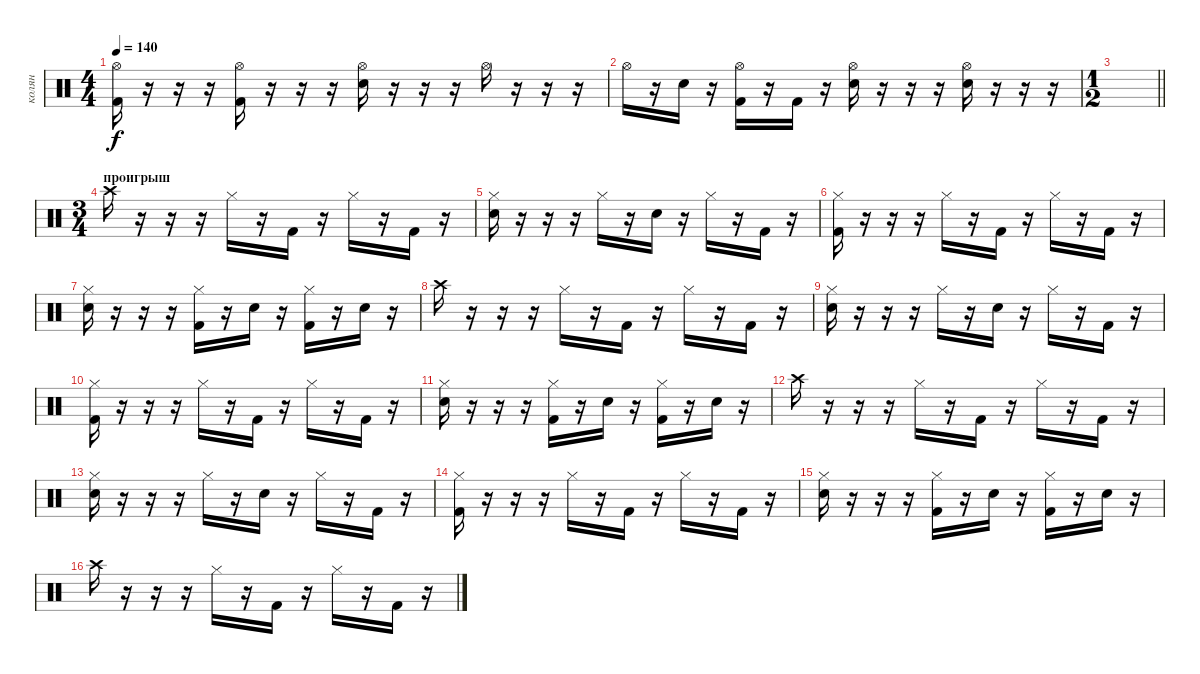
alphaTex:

\track ("колян" "колян") {instrument percussion}
\staff {score}
\articulation defaults
\ts (4 4)
\tempo 140
\clef neutral
\ks c
("Kick (hit) 2" "Hi-Hat (open)").16{dy f} r.16 r.16 r.16 ("Kick (hit) 2" "Hi-Hat (open)").16 r.16 r.16 r.16 ("Snare (hit) 2" "Hi-Hat (open)").16 r.16 r.16 r.16 "Hi-Hat (open)".16 r.16 r.16 r.16 |
"Hi-Hat (open)".16 r.16 "Snare (hit) 2".16 r.16 ("Kick (hit) 2" "Hi-Hat (open)").16 r.16 "Kick (hit) 2".16 r.16 ("Snare (hit) 2" "Hi-Hat (open)").16 r.16 r.16 r.16 ("Snare (hit) 2" "Hi-Hat (open)").16 r.16 r.16 r.16 |
\ts (1 2)
\barLineRight lightlight
|
\ts (3 4)
\section ("" "проигрыш")
"Crash high (hit)".16 r.16 r.16 r.16 "Hi-Hat (closed)".16 r.16 "Kick (hit) 2".16 r.16 "Hi-Hat (closed)".16 r.16 "Kick (hit) 2".16 r.16 |
("Snare (hit) 2" "Hi-Hat (closed)").16 r.16 r.16 r.16 "Hi-Hat (closed)".16 r.16 "Snare (hit) 2".16 r.16 "Hi-Hat (closed)".16 r.16 "Kick (hit) 2".16 r.16 |
("Kick (hit) 2" "Hi-Hat (closed)").16 r.16 r.16 r.16 "Hi-Hat (closed)".16 r.16 "Kick (hit) 2".16 r.16 "Hi-Hat (closed)".16 r.16 "Kick (hit) 2".16 r.16 |
("Snare (hit) 2" "Hi-Hat (closed)").16 r.16 r.16 r.16 ("Kick (hit) 2" "Hi-Hat (closed)").16 r.16 "Snare (hit) 2".16 r.16 ("Kick (hit) 2" "Hi-Hat (closed)").16 r.16 "Snare (hit) 2".16 r.16 |
"Crash high (hit)".16 r.16 r.16 r.16 "Hi-Hat (closed)".16 r.16 "Kick (hit) 2".16 r.16 "Hi-Hat (closed)".16 r.16 "Kick (hit) 2".16 r.16 |
("Snare (hit) 2" "Hi-Hat (closed)").16 r.16 r.16 r.16 "Hi-Hat (closed)".16 r.16 "Snare (hit) 2".16 r.16 "Hi-Hat (closed)".16 r.16 "Kick (hit) 2".16 r.16 |
("Kick (hit) 2" "Hi-Hat (closed)").16 r.16 r.16 r.16 "Hi-Hat (closed)".16 r.16 "Kick (hit) 2".16 r.16 "Hi-Hat (closed)".16 r.16 "Kick (hit) 2".16 r.16 |
("Snare (hit) 2" "Hi-Hat (closed)").16 r.16 r.16 r.16 ("Kick (hit) 2" "Hi-Hat (closed)").16 r.16 "Snare (hit) 2".16 r.16 ("Kick (hit) 2" "Hi-Hat (closed)").16 r.16 "Snare (hit) 2".16 r.16 |
"Crash high (hit)".16 r.16 r.16 r.16 "Hi-Hat (closed)".16 r.16 "Kick (hit) 2".16 r.16 "Hi-Hat (closed)".16 r.16 "Kick (hit) 2".16 r.16 |
("Snare (hit) 2" "Hi-Hat (closed)").16 r.16 r.16 r.16 "Hi-Hat (closed)".16 r.16 "Snare (hit) 2".16 r.16 "Hi-Hat (closed)".16 r.16 "Kick (hit) 2".16 r.16 |
("Kick (hit) 2" "Hi-Hat (closed)").16 r.16 r.16 r.16 "Hi-Hat (closed)".16 r.16 "Kick (hit) 2".16 r.16 "Hi-Hat (closed)".16 r.16 "Kick (hit) 2".16 r.16 |
("Snare (hit) 2" "Hi-Hat (closed)").16 r.16 r.16 r.16 ("Kick (hit) 2" "Hi-Hat (closed)").16 r.16 "Snare (hit) 2".16 r.16 ("Kick (hit) 2" "Hi-Hat (closed)").16 r.16 "Snare (hit) 2".16 r.16 |
"Crash high (hit)".16 r.16 r.16 r.16 "Hi-Hat (closed)".16 r.16 "Kick (hit) 2".16 r.16 "Hi-Hat (closed)".16 r.16 "Kick (hit) 2".16 r.16
